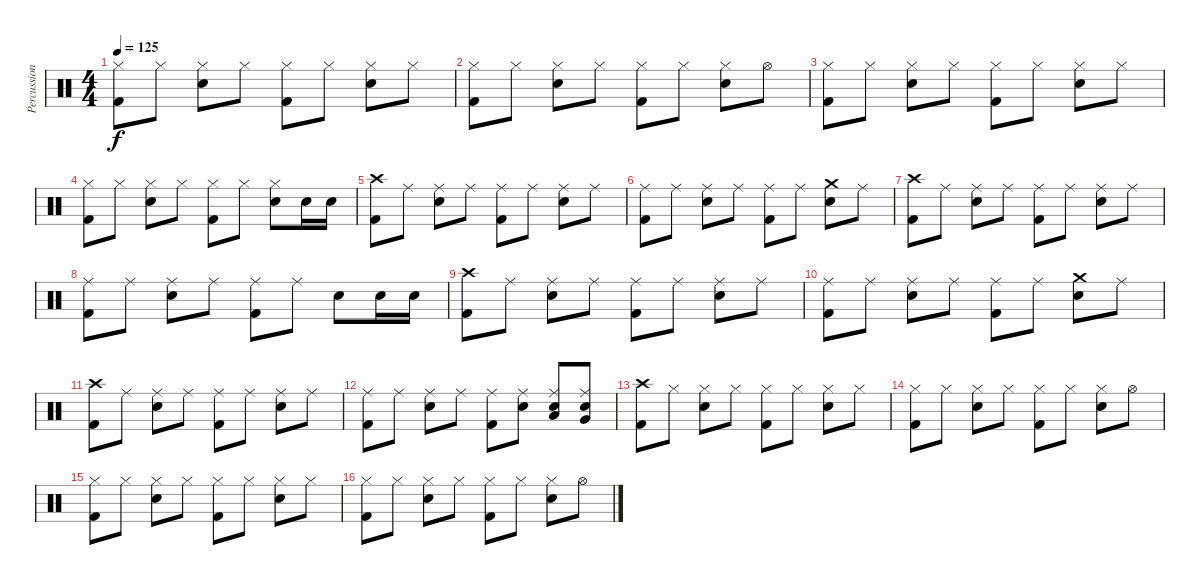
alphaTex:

\track ("Percussion" "Percussion") {instrument percussion}
\staff {score}
\articulation defaults
\ts (4 4)
\tempo 125
\clef neutral
\ks c
("Hi-Hat (closed)" "Kick (hit) 2").8{dy f} "Hi-Hat (closed)".8 ("Hi-Hat (closed)" "Snare (hit) 2").8 "Hi-Hat (closed)".8 ("Hi-Hat (closed)" "Kick (hit) 2").8 "Hi-Hat (closed)".8 ("Hi-Hat (closed)" "Snare (hit) 2").8 "Hi-Hat (closed)".8 |
("Hi-Hat (closed)" "Kick (hit) 2").8 "Hi-Hat (closed)".8 ("Hi-Hat (closed)" "Snare (hit) 2").8 "Hi-Hat (closed)".8 ("Hi-Hat (closed)" "Kick (hit) 2").8 "Hi-Hat (closed)".8 ("Hi-Hat (closed)" "Snare (hit) 2").8 "Hi-Hat (open)".8 |
("Hi-Hat (closed)" "Kick (hit) 2").8 "Hi-Hat (closed)".8 ("Hi-Hat (closed)" "Snare (hit) 2").8 "Hi-Hat (closed)".8 ("Hi-Hat (closed)" "Kick (hit) 2").8 "Hi-Hat (closed)".8 ("Hi-Hat (closed)" "Snare (hit) 2").8 "Hi-Hat (closed)".8 |
("Hi-Hat (closed)" "Kick (hit) 2").8 "Hi-Hat (closed)".8 ("Hi-Hat (closed)" "Snare (hit) 2").8 "Hi-Hat (closed)".8 ("Hi-Hat (closed)" "Kick (hit) 2").8 "Hi-Hat (closed)".8 ("Hi-Hat (closed)" "Snare (hit) 2").8 "Snare (hit) 2".16 "Snare (hit) 2".16 |
("Crash high (hit)" "Kick (hit) 2").8 "Ride (middle)".8 ("Ride (middle)" "Snare (hit) 2").8 "Ride (middle)".8 ("Ride (middle)" "Kick (hit) 2").8 "Ride (middle)".8 ("Ride (middle)" "Snare (hit) 2").8 "Ride (middle)".8 |
("Ride (middle)" "Kick (hit) 2").8 "Ride (middle)".8 ("Ride (middle)" "Snare (hit) 2").8 "Ride (middle)".8 ("Ride (middle)" "Kick (hit) 2").8 "Ride (middle)".8 ("Crash medium (hit)" "Snare (hit) 2").8 "Ride (middle)".8 |
("Crash high (hit)" "Kick (hit) 2").8 "Ride (middle)".8 ("Ride (middle)" "Snare (hit) 2").8 "Ride (middle)".8 ("Ride (middle)" "Kick (hit) 2").8 "Ride (middle)".8 ("Ride (middle)" "Snare (hit) 2").8 "Ride (middle)".8 |
("Ride (middle)" "Kick (hit) 2").8 "Ride (middle)".8 ("Ride (middle)" "Snare (hit) 2").8 "Ride (middle)".8 ("Ride (middle)" "Kick (hit) 2").8 "Ride (middle)".8 "Snare (hit) 2".8 "Snare (hit) 2".16 "Snare (hit) 2".16 |
("Crash high (hit)" "Kick (hit) 2").8 "Ride (middle)".8 ("Ride (middle)" "Snare (hit) 2").8 "Ride (middle)".8 ("Ride (middle)" "Kick (hit) 2").8 "Ride (middle)".8 ("Ride (middle)" "Snare (hit) 2").8 "Ride (middle)".8 |
("Ride (middle)" "Kick (hit) 2").8 "Ride (middle)".8 ("Ride (middle)" "Snare (hit) 2").8 "Ride (middle)".8 ("Ride (middle)" "Kick (hit) 2").8 "Ride (middle)".8 ("Crash medium (hit)" "Snare (hit) 2").8 "Ride (middle)".8 |
("Crash high (hit)" "Kick (hit) 2").8 "Ride (middle)".8 ("Ride (middle)" "Snare (hit) 2").8 "Ride (middle)".8 ("Ride (middle)" "Kick (hit) 2").8 "Ride (middle)".8 ("Ride (middle)" "Snare (hit) 2").8 "Ride (middle)".8 |
("Ride (middle)" "Kick (hit) 2").8 "Ride (middle)".8 ("Ride (middle)" "Snare (hit) 2").8 "Ride (middle)".8 ("Ride (middle)" "Kick (hit) 2").8 ("Ride (middle)" "Snare (hit) 2").8 ("Ride (middle)" "Low Tom (hit)" "Snare (hit) 2").8 ("Ride (middle)" "Very Low Tom (hit)" "Snare (hit) 2").8 |
("Crash high (hit)" "Kick (hit) 2").8 "Hi-Hat (closed)".8 ("Hi-Hat (closed)" "Snare (hit) 2").8 "Hi-Hat (closed)".8 ("Hi-Hat (closed)" "Kick (hit) 2").8 "Hi-Hat (closed)".8 ("Hi-Hat (closed)" "Snare (hit) 2").8 "Hi-Hat (closed)".8 |
("Hi-Hat (closed)" "Kick (hit) 2").8 "Hi-Hat (closed)".8 ("Hi-Hat (closed)" "Snare (hit) 2").8 "Hi-Hat (closed)".8 ("Hi-Hat (closed)" "Kick (hit) 2").8 "Hi-Hat (closed)".8 ("Hi-Hat (closed)" "Snare (hit) 2").8 "Hi-Hat (open)".8 |
("Hi-Hat (closed)" "Kick (hit) 2").8 "Hi-Hat (closed)".8 ("Hi-Hat (closed)" "Snare (hit) 2").8 "Hi-Hat (closed)".8 ("Hi-Hat (closed)" "Kick (hit) 2").8 "Hi-Hat (closed)".8 ("Hi-Hat (closed)" "Snare (hit) 2").8 "Hi-Hat (closed)".8 |
("Hi-Hat (closed)" "Kick (hit) 2").8 "Hi-Hat (closed)".8 ("Hi-Hat (closed)" "Snare (hit) 2").8 "Hi-Hat (closed)".8 ("Hi-Hat (closed)" "Kick (hit) 2").8 "Hi-Hat (closed)".8 ("Hi-Hat (closed)" "Snare (hit) 2").8 "Hi-Hat (open)".8
